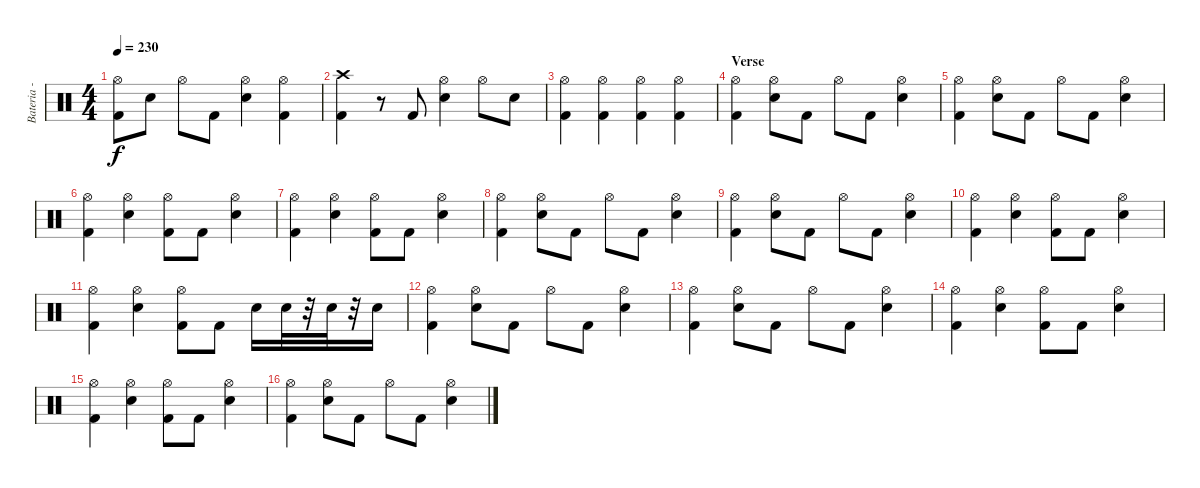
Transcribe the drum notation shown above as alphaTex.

\track ("Bateria - Larzon" "Bateria - ") {instrument percussion}
\staff {score}
\articulation defaults
\ts (4 4)
\tempo 230
\clef neutral
\ks c
("Hi-Hat (open)" "Kick (hit) 2").8{dy f} "Electric Snare (hit)".8 "Hi-Hat (open)".8 "Kick (hit) 2".8 ("Hi-Hat (open)" "Electric Snare (hit)").4 ("Hi-Hat (open)" "Kick (hit) 2").4 |
("Kick (hit) 2" "Crash high (hit)").4 r.8 "Kick (hit) 2".8 ("Hi-Hat (open)" "Electric Snare (hit)").4 "Hi-Hat (open)".8 "Electric Snare (hit)".8 |
("Kick (hit) 2" "Hi-Hat (open)").4 ("Hi-Hat (open)" "Kick (hit) 2").4 ("Hi-Hat (open)" "Kick (hit) 2").4 ("Hi-Hat (open)" "Kick (hit) 2").4 |
\section ("" "Verse")
("Hi-Hat (open)" "Kick (hit) 2").4 ("Hi-Hat (open)" "Electric Snare (hit)").8 "Kick (hit) 2".8 "Hi-Hat (open)".8 "Kick (hit) 2".8 ("Hi-Hat (open)" "Electric Snare (hit)").4 |
("Hi-Hat (open)" "Kick (hit) 2").4 ("Hi-Hat (open)" "Electric Snare (hit)").8 "Kick (hit) 2".8 "Hi-Hat (open)".8 "Kick (hit) 2".8 ("Hi-Hat (open)" "Electric Snare (hit)").4 |
("Hi-Hat (open)" "Kick (hit) 2").4 ("Hi-Hat (open)" "Electric Snare (hit)").4 ("Hi-Hat (open)" "Kick (hit) 2").8 "Kick (hit) 2".8 ("Hi-Hat (open)" "Electric Snare (hit)").4 |
("Hi-Hat (open)" "Kick (hit) 2").4 ("Hi-Hat (open)" "Electric Snare (hit)").4 ("Hi-Hat (open)" "Kick (hit) 2").8 "Kick (hit) 2".8 ("Hi-Hat (open)" "Electric Snare (hit)").4 |
("Hi-Hat (open)" "Kick (hit) 2").4 ("Hi-Hat (open)" "Electric Snare (hit)").8 "Kick (hit) 2".8 "Hi-Hat (open)".8 "Kick (hit) 2".8 ("Hi-Hat (open)" "Electric Snare (hit)").4 |
("Hi-Hat (open)" "Kick (hit) 2").4 ("Hi-Hat (open)" "Electric Snare (hit)").8 "Kick (hit) 2".8 "Hi-Hat (open)".8 "Kick (hit) 2".8 ("Hi-Hat (open)" "Electric Snare (hit)").4 |
("Hi-Hat (open)" "Kick (hit) 2").4 ("Hi-Hat (open)" "Electric Snare (hit)").4 ("Hi-Hat (open)" "Kick (hit) 2").8 "Kick (hit) 2".8 ("Hi-Hat (open)" "Electric Snare (hit)").4 |
("Hi-Hat (open)" "Kick (hit) 2").4 ("Hi-Hat (open)" "Electric Snare (hit)").4 ("Hi-Hat (open)" "Kick (hit) 2").8 "Kick (hit) 2".8 "Electric Snare (hit)".16 "Electric Snare (hit)".32 r.32 "Electric Snare (hit)".32 r.32 "Electric Snare (hit)".16 |
("Hi-Hat (open)" "Kick (hit) 2").4 ("Hi-Hat (open)" "Electric Snare (hit)").8 "Kick (hit) 2".8 "Hi-Hat (open)".8 "Kick (hit) 2".8 ("Hi-Hat (open)" "Electric Snare (hit)").4 |
("Hi-Hat (open)" "Kick (hit) 2").4 ("Hi-Hat (open)" "Electric Snare (hit)").8 "Kick (hit) 2".8 "Hi-Hat (open)".8 "Kick (hit) 2".8 ("Hi-Hat (open)" "Electric Snare (hit)").4 |
("Hi-Hat (open)" "Kick (hit) 2").4 ("Hi-Hat (open)" "Electric Snare (hit)").4 ("Hi-Hat (open)" "Kick (hit) 2").8 "Kick (hit) 2".8 ("Hi-Hat (open)" "Electric Snare (hit)").4 |
("Hi-Hat (open)" "Kick (hit) 2").4 ("Hi-Hat (open)" "Electric Snare (hit)").4 ("Hi-Hat (open)" "Kick (hit) 2").8 "Kick (hit) 2".8 ("Hi-Hat (open)" "Electric Snare (hit)").4 |
("Hi-Hat (open)" "Kick (hit) 2").4 ("Hi-Hat (open)" "Electric Snare (hit)").8 "Kick (hit) 2".8 "Hi-Hat (open)".8 "Kick (hit) 2".8 ("Hi-Hat (open)" "Electric Snare (hit)").4
